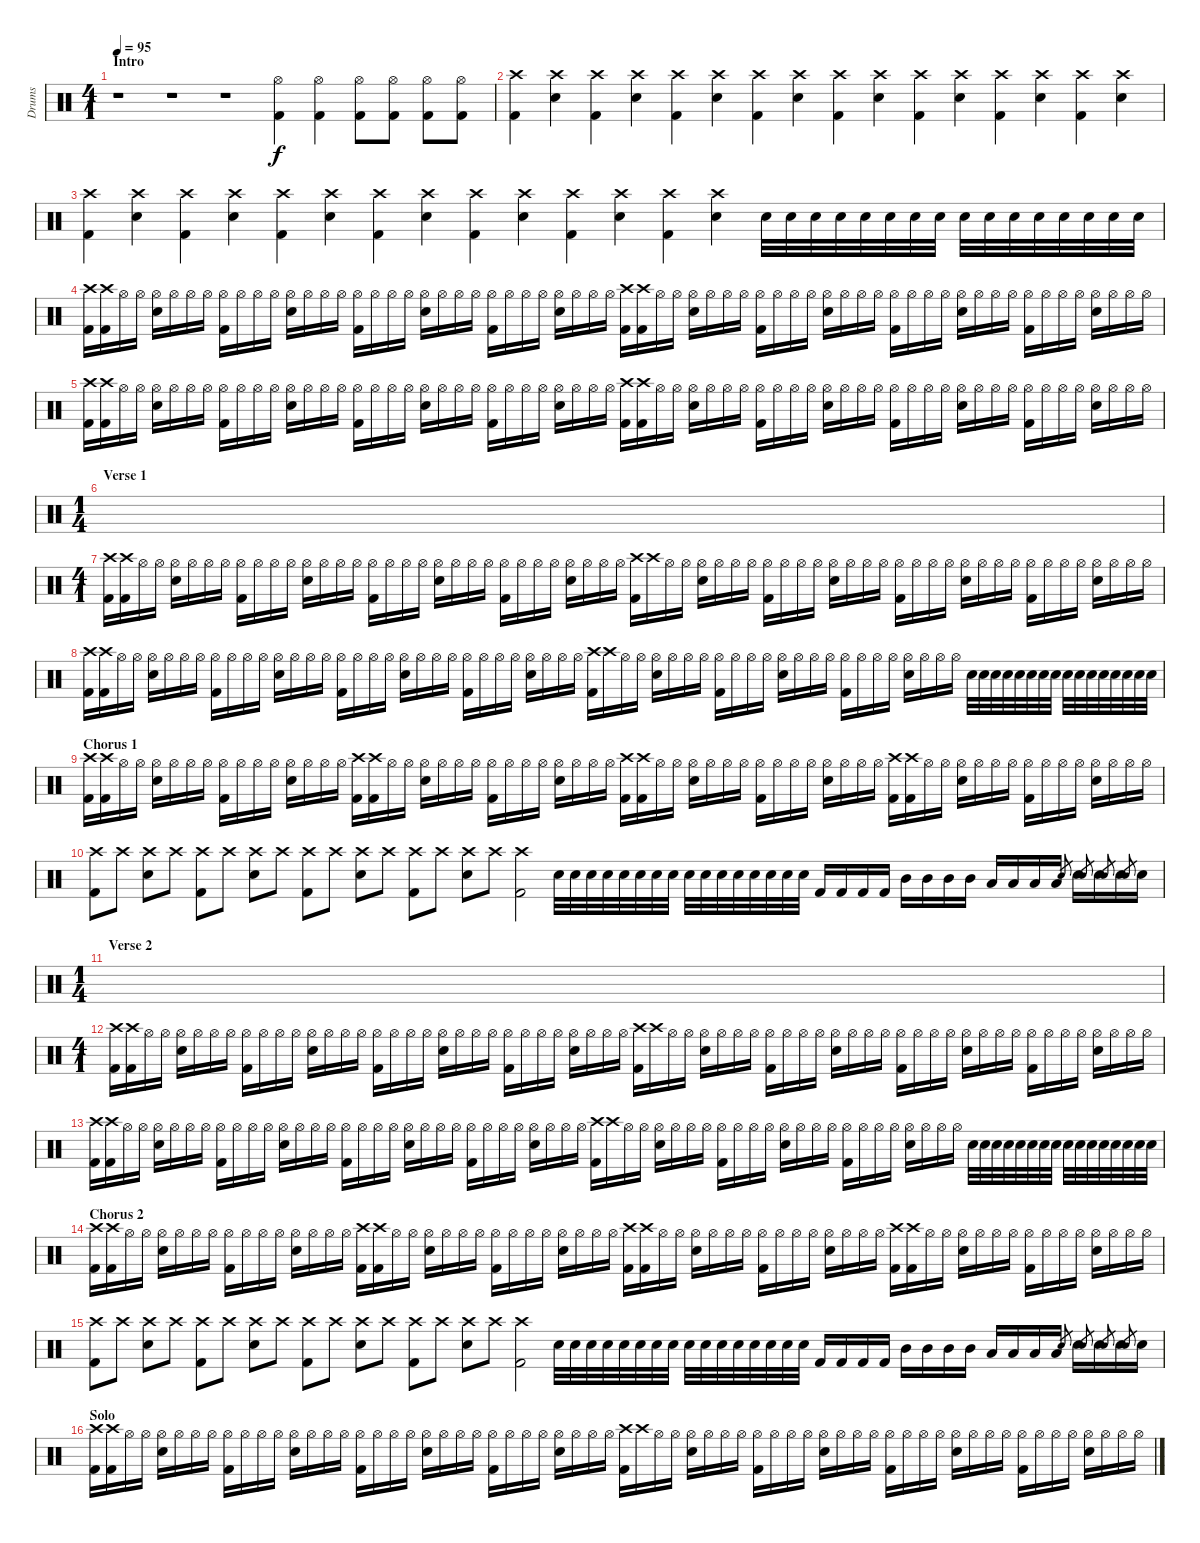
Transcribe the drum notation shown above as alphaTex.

\track ("Drums" "Drums") {instrument percussion}
\staff {score}
\articulation defaults
\ts (4 1)
\section ("" "Intro")
\tempo 95
\clef neutral
\ks c
r.1{dy f} r.1 r.1 ("Hi-Hat (open)" "Kick (hit) 2").4 ("Hi-Hat (open)" "Kick (hit) 2").4 ("Hi-Hat (open)" "Kick (hit) 2").8 ("Hi-Hat (open)" "Kick (hit) 2").8 ("Hi-Hat (open)" "Kick (hit) 2").8 ("Hi-Hat (open)" "Kick (hit) 2").8 |
("Crash high (hit)" "Kick (hit) 2").4 ("Crash high (hit)" "Electric Snare (hit)").4 ("Crash high (hit)" "Kick (hit) 2").4 ("Crash high (hit)" "Electric Snare (hit)").4 ("Crash high (hit)" "Kick (hit) 2").4 ("Crash high (hit)" "Electric Snare (hit)").4 ("Crash high (hit)" "Kick (hit) 2").4 ("Crash high (hit)" "Electric Snare (hit)").4 ("Crash high (hit)" "Kick (hit) 2").4 ("Crash high (hit)" "Electric Snare (hit)").4 ("Crash high (hit)" "Kick (hit) 2").4 ("Crash high (hit)" "Electric Snare (hit)").4 ("Crash high (hit)" "Kick (hit) 2").4 ("Crash high (hit)" "Electric Snare (hit)").4 ("Crash high (hit)" "Kick (hit) 2").4 ("Crash high (hit)" "Electric Snare (hit)").4 |
("Crash high (hit)" "Kick (hit) 2").4 ("Crash high (hit)" "Electric Snare (hit)").4 ("Crash high (hit)" "Kick (hit) 2").4 ("Crash high (hit)" "Electric Snare (hit)").4 ("Crash high (hit)" "Kick (hit) 2").4 ("Crash high (hit)" "Electric Snare (hit)").4 ("Crash high (hit)" "Kick (hit) 2").4 ("Crash high (hit)" "Electric Snare (hit)").4 ("Crash high (hit)" "Kick (hit) 2").4 ("Crash high (hit)" "Electric Snare (hit)").4 ("Crash high (hit)" "Kick (hit) 2").4 ("Crash high (hit)" "Electric Snare (hit)").4 ("Crash high (hit)" "Kick (hit) 2").4 ("Crash high (hit)" "Electric Snare (hit)").4 "Electric Snare (hit)".32 "Electric Snare (hit)".32 "Electric Snare (hit)".32 "Electric Snare (hit)".32 "Electric Snare (hit)".32 "Electric Snare (hit)".32 "Electric Snare (hit)".32 "Electric Snare (hit)".32 "Electric Snare (hit)".32 "Electric Snare (hit)".32 "Electric Snare (hit)".32 "Electric Snare (hit)".32 "Electric Snare (hit)".32 "Electric Snare (hit)".32 "Electric Snare (hit)".32 "Electric Snare (hit)".32 |
("Crash high (hit)" "Kick (hit) 2").16 ("Crash high (hit)" "Kick (hit) 2").16 "Hi-Hat (open)".16 "Hi-Hat (open)".16 ("Hi-Hat (open)" "Electric Snare (hit)").16 "Hi-Hat (open)".16 "Hi-Hat (open)".16 "Hi-Hat (open)".16 ("Hi-Hat (open)" "Kick (hit) 2").16 "Hi-Hat (open)".16 "Hi-Hat (open)".16 "Hi-Hat (open)".16 ("Hi-Hat (open)" "Electric Snare (hit)").16 "Hi-Hat (open)".16 "Hi-Hat (open)".16 "Hi-Hat (open)".16 ("Hi-Hat (open)" "Kick (hit) 2").16 "Hi-Hat (open)".16 "Hi-Hat (open)".16 "Hi-Hat (open)".16 ("Hi-Hat (open)" "Electric Snare (hit)").16 "Hi-Hat (open)".16 "Hi-Hat (open)".16 "Hi-Hat (open)".16 ("Hi-Hat (open)" "Kick (hit) 2").16 "Hi-Hat (open)".16 "Hi-Hat (open)".16 "Hi-Hat (open)".16 ("Hi-Hat (open)" "Electric Snare (hit)").16 "Hi-Hat (open)".16 "Hi-Hat (open)".16 "Hi-Hat (open)".16 ("Crash high (hit)" "Kick (hit) 2").16 ("Crash high (hit)" "Kick (hit) 2").16 "Hi-Hat (open)".16 "Hi-Hat (open)".16 ("Hi-Hat (open)" "Electric Snare (hit)").16 "Hi-Hat (open)".16 "Hi-Hat (open)".16 "Hi-Hat (open)".16 ("Hi-Hat (open)" "Kick (hit) 2").16 "Hi-Hat (open)".16 "Hi-Hat (open)".16 "Hi-Hat (open)".16 ("Hi-Hat (open)" "Electric Snare (hit)").16 "Hi-Hat (open)".16 "Hi-Hat (open)".16 "Hi-Hat (open)".16 ("Hi-Hat (open)" "Kick (hit) 2").16 "Hi-Hat (open)".16 "Hi-Hat (open)".16 "Hi-Hat (open)".16 ("Hi-Hat (open)" "Electric Snare (hit)").16 "Hi-Hat (open)".16 "Hi-Hat (open)".16 "Hi-Hat (open)".16 ("Hi-Hat (open)" "Kick (hit) 2").16 "Hi-Hat (open)".16 "Hi-Hat (open)".16 "Hi-Hat (open)".16 ("Hi-Hat (open)" "Electric Snare (hit)").16 "Hi-Hat (open)".16 "Hi-Hat (open)".16 "Hi-Hat (open)".16 |
("Crash high (hit)" "Kick (hit) 2").16 ("Crash high (hit)" "Kick (hit) 2").16 "Hi-Hat (open)".16 "Hi-Hat (open)".16 ("Hi-Hat (open)" "Electric Snare (hit)").16 "Hi-Hat (open)".16 "Hi-Hat (open)".16 "Hi-Hat (open)".16 ("Hi-Hat (open)" "Kick (hit) 2").16 "Hi-Hat (open)".16 "Hi-Hat (open)".16 "Hi-Hat (open)".16 ("Hi-Hat (open)" "Electric Snare (hit)").16 "Hi-Hat (open)".16 "Hi-Hat (open)".16 "Hi-Hat (open)".16 ("Hi-Hat (open)" "Kick (hit) 2").16 "Hi-Hat (open)".16 "Hi-Hat (open)".16 "Hi-Hat (open)".16 ("Hi-Hat (open)" "Electric Snare (hit)").16 "Hi-Hat (open)".16 "Hi-Hat (open)".16 "Hi-Hat (open)".16 ("Hi-Hat (open)" "Kick (hit) 2").16 "Hi-Hat (open)".16 "Hi-Hat (open)".16 "Hi-Hat (open)".16 ("Hi-Hat (open)" "Electric Snare (hit)").16 "Hi-Hat (open)".16 "Hi-Hat (open)".16 "Hi-Hat (open)".16 ("Crash high (hit)" "Kick (hit) 2").16 ("Crash high (hit)" "Kick (hit) 2").16 "Hi-Hat (open)".16 "Hi-Hat (open)".16 ("Hi-Hat (open)" "Electric Snare (hit)").16 "Hi-Hat (open)".16 "Hi-Hat (open)".16 "Hi-Hat (open)".16 ("Hi-Hat (open)" "Kick (hit) 2").16 "Hi-Hat (open)".16 "Hi-Hat (open)".16 "Hi-Hat (open)".16 ("Hi-Hat (open)" "Electric Snare (hit)").16 "Hi-Hat (open)".16 "Hi-Hat (open)".16 "Hi-Hat (open)".16 ("Hi-Hat (open)" "Kick (hit) 2").16 "Hi-Hat (open)".16 "Hi-Hat (open)".16 "Hi-Hat (open)".16 ("Hi-Hat (open)" "Electric Snare (hit)").16 "Hi-Hat (open)".16 "Hi-Hat (open)".16 "Hi-Hat (open)".16 ("Hi-Hat (open)" "Kick (hit) 2").16 "Hi-Hat (open)".16 "Hi-Hat (open)".16 "Hi-Hat (open)".16 ("Hi-Hat (open)" "Electric Snare (hit)").16 "Hi-Hat (open)".16 "Hi-Hat (open)".16 "Hi-Hat (open)".16 |
\ts (1 4)
\section ("" "Verse 1")
|
\ts (4 1)
("Crash high (hit)" "Kick (hit) 2").16 ("Crash high (hit)" "Kick (hit) 2").16 "Hi-Hat (open)".16 "Hi-Hat (open)".16 ("Hi-Hat (open)" "Electric Snare (hit)").16 "Hi-Hat (open)".16 "Hi-Hat (open)".16 "Hi-Hat (open)".16 ("Hi-Hat (open)" "Kick (hit) 2").16 "Hi-Hat (open)".16 "Hi-Hat (open)".16 "Hi-Hat (open)".16 ("Hi-Hat (open)" "Electric Snare (hit)").16 "Hi-Hat (open)".16 "Hi-Hat (open)".16 "Hi-Hat (open)".16 ("Hi-Hat (open)" "Kick (hit) 2").16 "Hi-Hat (open)".16 "Hi-Hat (open)".16 "Hi-Hat (open)".16 ("Hi-Hat (open)" "Electric Snare (hit)").16 "Hi-Hat (open)".16 "Hi-Hat (open)".16 "Hi-Hat (open)".16 ("Hi-Hat (open)" "Kick (hit) 2").16 "Hi-Hat (open)".16 "Hi-Hat (open)".16 "Hi-Hat (open)".16 ("Hi-Hat (open)" "Electric Snare (hit)").16 "Hi-Hat (open)".16 "Hi-Hat (open)".16 "Hi-Hat (open)".16 ("Crash high (hit)" "Kick (hit) 2").16 "Crash high (hit)".16 "Hi-Hat (open)".16 "Hi-Hat (open)".16 ("Hi-Hat (open)" "Electric Snare (hit)").16 "Hi-Hat (open)".16 "Hi-Hat (open)".16 "Hi-Hat (open)".16 ("Hi-Hat (open)" "Kick (hit) 2").16 "Hi-Hat (open)".16 "Hi-Hat (open)".16 "Hi-Hat (open)".16 ("Hi-Hat (open)" "Electric Snare (hit)").16 "Hi-Hat (open)".16 "Hi-Hat (open)".16 "Hi-Hat (open)".16 ("Hi-Hat (open)" "Kick (hit) 2").16 "Hi-Hat (open)".16 "Hi-Hat (open)".16 "Hi-Hat (open)".16 ("Hi-Hat (open)" "Electric Snare (hit)").16 "Hi-Hat (open)".16 "Hi-Hat (open)".16 "Hi-Hat (open)".16 ("Hi-Hat (open)" "Kick (hit) 2").16 "Hi-Hat (open)".16 "Hi-Hat (open)".16 "Hi-Hat (open)".16 ("Hi-Hat (open)" "Electric Snare (hit)").16 "Hi-Hat (open)".16 "Hi-Hat (open)".16 "Hi-Hat (open)".16 |
("Crash high (hit)" "Kick (hit) 2").16 ("Crash high (hit)" "Kick (hit) 2").16 "Hi-Hat (open)".16 "Hi-Hat (open)".16 ("Hi-Hat (open)" "Electric Snare (hit)").16 "Hi-Hat (open)".16 "Hi-Hat (open)".16 "Hi-Hat (open)".16 ("Hi-Hat (open)" "Kick (hit) 2").16 "Hi-Hat (open)".16 "Hi-Hat (open)".16 "Hi-Hat (open)".16 ("Hi-Hat (open)" "Electric Snare (hit)").16 "Hi-Hat (open)".16 "Hi-Hat (open)".16 "Hi-Hat (open)".16 ("Hi-Hat (open)" "Kick (hit) 2").16 "Hi-Hat (open)".16 "Hi-Hat (open)".16 "Hi-Hat (open)".16 ("Hi-Hat (open)" "Electric Snare (hit)").16 "Hi-Hat (open)".16 "Hi-Hat (open)".16 "Hi-Hat (open)".16 ("Hi-Hat (open)" "Kick (hit) 2").16 "Hi-Hat (open)".16 "Hi-Hat (open)".16 "Hi-Hat (open)".16 ("Hi-Hat (open)" "Electric Snare (hit)").16 "Hi-Hat (open)".16 "Hi-Hat (open)".16 "Hi-Hat (open)".16 ("Crash high (hit)" "Kick (hit) 2").16 "Crash high (hit)".16 "Hi-Hat (open)".16 "Hi-Hat (open)".16 ("Hi-Hat (open)" "Electric Snare (hit)").16 "Hi-Hat (open)".16 "Hi-Hat (open)".16 "Hi-Hat (open)".16 ("Hi-Hat (open)" "Kick (hit) 2").16 "Hi-Hat (open)".16 "Hi-Hat (open)".16 "Hi-Hat (open)".16 ("Hi-Hat (open)" "Electric Snare (hit)").16 "Hi-Hat (open)".16 "Hi-Hat (open)".16 "Hi-Hat (open)".16 ("Hi-Hat (open)" "Kick (hit) 2").16 "Hi-Hat (open)".16 "Hi-Hat (open)".16 "Hi-Hat (open)".16 ("Hi-Hat (open)" "Electric Snare (hit)").16 "Hi-Hat (open)".16 "Hi-Hat (open)".16 "Hi-Hat (open)".16 "Electric Snare (hit)".32 "Electric Snare (hit)".32 "Electric Snare (hit)".32 "Electric Snare (hit)".32 "Electric Snare (hit)".32 "Electric Snare (hit)".32 "Electric Snare (hit)".32 "Electric Snare (hit)".32 "Electric Snare (hit)".32 "Electric Snare (hit)".32 "Electric Snare (hit)".32 "Electric Snare (hit)".32 "Electric Snare (hit)".32 "Electric Snare (hit)".32 "Electric Snare (hit)".32 "Electric Snare (hit)".32 |
\section ("" "Chorus 1")
("Crash high (hit)" "Kick (hit) 2").16 ("Crash high (hit)" "Kick (hit) 2").16 "Hi-Hat (open)".16 "Hi-Hat (open)".16 ("Hi-Hat (open)" "Electric Snare (hit)").16 "Hi-Hat (open)".16 "Hi-Hat (open)".16 "Hi-Hat (open)".16 ("Hi-Hat (open)" "Kick (hit) 2").16 "Hi-Hat (open)".16 "Hi-Hat (open)".16 "Hi-Hat (open)".16 ("Hi-Hat (open)" "Electric Snare (hit)").16 "Hi-Hat (open)".16 "Hi-Hat (open)".16 "Hi-Hat (open)".16 ("Crash high (hit)" "Kick (hit) 2").16 ("Crash high (hit)" "Kick (hit) 2").16 "Hi-Hat (open)".16 "Hi-Hat (open)".16 ("Hi-Hat (open)" "Electric Snare (hit)").16 "Hi-Hat (open)".16 "Hi-Hat (open)".16 "Hi-Hat (open)".16 ("Hi-Hat (open)" "Kick (hit) 2").16 "Hi-Hat (open)".16 "Hi-Hat (open)".16 "Hi-Hat (open)".16 ("Hi-Hat (open)" "Electric Snare (hit)").16 "Hi-Hat (open)".16 "Hi-Hat (open)".16 "Hi-Hat (open)".16 ("Crash high (hit)" "Kick (hit) 2").16 ("Crash high (hit)" "Kick (hit) 2").16 "Hi-Hat (open)".16 "Hi-Hat (open)".16 ("Hi-Hat (open)" "Electric Snare (hit)").16 "Hi-Hat (open)".16 "Hi-Hat (open)".16 "Hi-Hat (open)".16 ("Hi-Hat (open)" "Kick (hit) 2").16 "Hi-Hat (open)".16 "Hi-Hat (open)".16 "Hi-Hat (open)".16 ("Hi-Hat (open)" "Electric Snare (hit)").16 "Hi-Hat (open)".16 "Hi-Hat (open)".16 "Hi-Hat (open)".16 ("Crash high (hit)" "Kick (hit) 2").16 ("Crash high (hit)" "Kick (hit) 2").16 "Hi-Hat (open)".16 "Hi-Hat (open)".16 ("Hi-Hat (open)" "Electric Snare (hit)").16 "Hi-Hat (open)".16 "Hi-Hat (open)".16 "Hi-Hat (open)".16 ("Hi-Hat (open)" "Kick (hit) 2").16 "Hi-Hat (open)".16 "Hi-Hat (open)".16 "Hi-Hat (open)".16 ("Hi-Hat (open)" "Electric Snare (hit)").16 "Hi-Hat (open)".16 "Hi-Hat (open)".16 "Hi-Hat (open)".16 |
("Crash high (hit)" "Kick (hit) 2").8 "Crash high (hit)".8 ("Crash high (hit)" "Electric Snare (hit)").8 "Crash high (hit)".8 ("Crash high (hit)" "Kick (hit) 2").8 "Crash high (hit)".8 ("Crash high (hit)" "Electric Snare (hit)").8 "Crash high (hit)".8 ("Crash high (hit)" "Kick (hit) 2").8 "Crash high (hit)".8 ("Crash high (hit)" "Electric Snare (hit)").8 "Crash high (hit)".8 ("Crash high (hit)" "Kick (hit) 2").8 "Crash high (hit)".8 ("Crash high (hit)" "Electric Snare (hit)").8 "Crash high (hit)".8 ("Crash high (hit)" "Kick (hit) 2").2 "Electric Snare (hit)".32 "Electric Snare (hit)".32 "Electric Snare (hit)".32 "Electric Snare (hit)".32 "Electric Snare (hit)".32 "Electric Snare (hit)".32 "Electric Snare (hit)".32 "Electric Snare (hit)".32 "Electric Snare (hit)".32 "Electric Snare (hit)".32 "Electric Snare (hit)".32 "Electric Snare (hit)".32 "Electric Snare (hit)".32 "Electric Snare (hit)".32 "Electric Snare (hit)".32 "Electric Snare (hit)".32 "Kick (hit) 2".16 "Kick (hit) 2".16 "Kick (hit) 2".16 "Kick (hit) 2".16 "Mid Tom (hit)".16 "Mid Tom (hit)".16 "Mid Tom (hit)".16 "Mid Tom (hit)".16 "Low Tom (hit)".16 "Low Tom (hit)".16 "Low Tom (hit)".16 "Low Tom (hit)".16 "Electric Snare (hit)".8{gr} "Electric Snare (hit)".16 "Electric Snare (hit)".8{gr} "Electric Snare (hit)".16 "Electric Snare (hit)".8{gr} "Electric Snare (hit)".16 "Electric Snare (hit)".8{gr} "Electric Snare (hit)".16 |
\ts (1 4)
\section ("" "Verse 2")
|
\ts (4 1)
("Crash high (hit)" "Kick (hit) 2").16 ("Crash high (hit)" "Kick (hit) 2").16 "Hi-Hat (open)".16 "Hi-Hat (open)".16 ("Hi-Hat (open)" "Electric Snare (hit)").16 "Hi-Hat (open)".16 "Hi-Hat (open)".16 "Hi-Hat (open)".16 ("Hi-Hat (open)" "Kick (hit) 2").16 "Hi-Hat (open)".16 "Hi-Hat (open)".16 "Hi-Hat (open)".16 ("Hi-Hat (open)" "Electric Snare (hit)").16 "Hi-Hat (open)".16 "Hi-Hat (open)".16 "Hi-Hat (open)".16 ("Hi-Hat (open)" "Kick (hit) 2").16 "Hi-Hat (open)".16 "Hi-Hat (open)".16 "Hi-Hat (open)".16 ("Hi-Hat (open)" "Electric Snare (hit)").16 "Hi-Hat (open)".16 "Hi-Hat (open)".16 "Hi-Hat (open)".16 ("Hi-Hat (open)" "Kick (hit) 2").16 "Hi-Hat (open)".16 "Hi-Hat (open)".16 "Hi-Hat (open)".16 ("Hi-Hat (open)" "Electric Snare (hit)").16 "Hi-Hat (open)".16 "Hi-Hat (open)".16 "Hi-Hat (open)".16 ("Crash high (hit)" "Kick (hit) 2").16 "Crash high (hit)".16 "Hi-Hat (open)".16 "Hi-Hat (open)".16 ("Hi-Hat (open)" "Electric Snare (hit)").16 "Hi-Hat (open)".16 "Hi-Hat (open)".16 "Hi-Hat (open)".16 ("Hi-Hat (open)" "Kick (hit) 2").16 "Hi-Hat (open)".16 "Hi-Hat (open)".16 "Hi-Hat (open)".16 ("Hi-Hat (open)" "Electric Snare (hit)").16 "Hi-Hat (open)".16 "Hi-Hat (open)".16 "Hi-Hat (open)".16 ("Hi-Hat (open)" "Kick (hit) 2").16 "Hi-Hat (open)".16 "Hi-Hat (open)".16 "Hi-Hat (open)".16 ("Hi-Hat (open)" "Electric Snare (hit)").16 "Hi-Hat (open)".16 "Hi-Hat (open)".16 "Hi-Hat (open)".16 ("Hi-Hat (open)" "Kick (hit) 2").16 "Hi-Hat (open)".16 "Hi-Hat (open)".16 "Hi-Hat (open)".16 ("Hi-Hat (open)" "Electric Snare (hit)").16 "Hi-Hat (open)".16 "Hi-Hat (open)".16 "Hi-Hat (open)".16 |
("Crash high (hit)" "Kick (hit) 2").16 ("Crash high (hit)" "Kick (hit) 2").16 "Hi-Hat (open)".16 "Hi-Hat (open)".16 ("Hi-Hat (open)" "Electric Snare (hit)").16 "Hi-Hat (open)".16 "Hi-Hat (open)".16 "Hi-Hat (open)".16 ("Hi-Hat (open)" "Kick (hit) 2").16 "Hi-Hat (open)".16 "Hi-Hat (open)".16 "Hi-Hat (open)".16 ("Hi-Hat (open)" "Electric Snare (hit)").16 "Hi-Hat (open)".16 "Hi-Hat (open)".16 "Hi-Hat (open)".16 ("Hi-Hat (open)" "Kick (hit) 2").16 "Hi-Hat (open)".16 "Hi-Hat (open)".16 "Hi-Hat (open)".16 ("Hi-Hat (open)" "Electric Snare (hit)").16 "Hi-Hat (open)".16 "Hi-Hat (open)".16 "Hi-Hat (open)".16 ("Hi-Hat (open)" "Kick (hit) 2").16 "Hi-Hat (open)".16 "Hi-Hat (open)".16 "Hi-Hat (open)".16 ("Hi-Hat (open)" "Electric Snare (hit)").16 "Hi-Hat (open)".16 "Hi-Hat (open)".16 "Hi-Hat (open)".16 ("Crash high (hit)" "Kick (hit) 2").16 "Crash high (hit)".16 "Hi-Hat (open)".16 "Hi-Hat (open)".16 ("Hi-Hat (open)" "Electric Snare (hit)").16 "Hi-Hat (open)".16 "Hi-Hat (open)".16 "Hi-Hat (open)".16 ("Hi-Hat (open)" "Kick (hit) 2").16 "Hi-Hat (open)".16 "Hi-Hat (open)".16 "Hi-Hat (open)".16 ("Hi-Hat (open)" "Electric Snare (hit)").16 "Hi-Hat (open)".16 "Hi-Hat (open)".16 "Hi-Hat (open)".16 ("Hi-Hat (open)" "Kick (hit) 2").16 "Hi-Hat (open)".16 "Hi-Hat (open)".16 "Hi-Hat (open)".16 ("Hi-Hat (open)" "Electric Snare (hit)").16 "Hi-Hat (open)".16 "Hi-Hat (open)".16 "Hi-Hat (open)".16 "Electric Snare (hit)".32 "Electric Snare (hit)".32 "Electric Snare (hit)".32 "Electric Snare (hit)".32 "Electric Snare (hit)".32 "Electric Snare (hit)".32 "Electric Snare (hit)".32 "Electric Snare (hit)".32 "Electric Snare (hit)".32 "Electric Snare (hit)".32 "Electric Snare (hit)".32 "Electric Snare (hit)".32 "Electric Snare (hit)".32 "Electric Snare (hit)".32 "Electric Snare (hit)".32 "Electric Snare (hit)".32 |
\section ("" "Chorus 2")
("Crash high (hit)" "Kick (hit) 2").16 ("Crash high (hit)" "Kick (hit) 2").16 "Hi-Hat (open)".16 "Hi-Hat (open)".16 ("Hi-Hat (open)" "Electric Snare (hit)").16 "Hi-Hat (open)".16 "Hi-Hat (open)".16 "Hi-Hat (open)".16 ("Hi-Hat (open)" "Kick (hit) 2").16 "Hi-Hat (open)".16 "Hi-Hat (open)".16 "Hi-Hat (open)".16 ("Hi-Hat (open)" "Electric Snare (hit)").16 "Hi-Hat (open)".16 "Hi-Hat (open)".16 "Hi-Hat (open)".16 ("Crash high (hit)" "Kick (hit) 2").16 ("Crash high (hit)" "Kick (hit) 2").16 "Hi-Hat (open)".16 "Hi-Hat (open)".16 ("Hi-Hat (open)" "Electric Snare (hit)").16 "Hi-Hat (open)".16 "Hi-Hat (open)".16 "Hi-Hat (open)".16 ("Hi-Hat (open)" "Kick (hit) 2").16 "Hi-Hat (open)".16 "Hi-Hat (open)".16 "Hi-Hat (open)".16 ("Hi-Hat (open)" "Electric Snare (hit)").16 "Hi-Hat (open)".16 "Hi-Hat (open)".16 "Hi-Hat (open)".16 ("Crash high (hit)" "Kick (hit) 2").16 ("Crash high (hit)" "Kick (hit) 2").16 "Hi-Hat (open)".16 "Hi-Hat (open)".16 ("Hi-Hat (open)" "Electric Snare (hit)").16 "Hi-Hat (open)".16 "Hi-Hat (open)".16 "Hi-Hat (open)".16 ("Hi-Hat (open)" "Kick (hit) 2").16 "Hi-Hat (open)".16 "Hi-Hat (open)".16 "Hi-Hat (open)".16 ("Hi-Hat (open)" "Electric Snare (hit)").16 "Hi-Hat (open)".16 "Hi-Hat (open)".16 "Hi-Hat (open)".16 ("Crash high (hit)" "Kick (hit) 2").16 ("Crash high (hit)" "Kick (hit) 2").16 "Hi-Hat (open)".16 "Hi-Hat (open)".16 ("Hi-Hat (open)" "Electric Snare (hit)").16 "Hi-Hat (open)".16 "Hi-Hat (open)".16 "Hi-Hat (open)".16 ("Hi-Hat (open)" "Kick (hit) 2").16 "Hi-Hat (open)".16 "Hi-Hat (open)".16 "Hi-Hat (open)".16 ("Hi-Hat (open)" "Electric Snare (hit)").16 "Hi-Hat (open)".16 "Hi-Hat (open)".16 "Hi-Hat (open)".16 |
("Crash high (hit)" "Kick (hit) 2").8 "Crash high (hit)".8 ("Crash high (hit)" "Electric Snare (hit)").8 "Crash high (hit)".8 ("Crash high (hit)" "Kick (hit) 2").8 "Crash high (hit)".8 ("Crash high (hit)" "Electric Snare (hit)").8 "Crash high (hit)".8 ("Crash high (hit)" "Kick (hit) 2").8 "Crash high (hit)".8 ("Crash high (hit)" "Electric Snare (hit)").8 "Crash high (hit)".8 ("Crash high (hit)" "Kick (hit) 2").8 "Crash high (hit)".8 ("Crash high (hit)" "Electric Snare (hit)").8 "Crash high (hit)".8 ("Crash high (hit)" "Kick (hit) 2").2 "Electric Snare (hit)".32 "Electric Snare (hit)".32 "Electric Snare (hit)".32 "Electric Snare (hit)".32 "Electric Snare (hit)".32 "Electric Snare (hit)".32 "Electric Snare (hit)".32 "Electric Snare (hit)".32 "Electric Snare (hit)".32 "Electric Snare (hit)".32 "Electric Snare (hit)".32 "Electric Snare (hit)".32 "Electric Snare (hit)".32 "Electric Snare (hit)".32 "Electric Snare (hit)".32 "Electric Snare (hit)".32 "Kick (hit) 2".16 "Kick (hit) 2".16 "Kick (hit) 2".16 "Kick (hit) 2".16 "Mid Tom (hit)".16 "Mid Tom (hit)".16 "Mid Tom (hit)".16 "Mid Tom (hit)".16 "Low Tom (hit)".16 "Low Tom (hit)".16 "Low Tom (hit)".16 "Low Tom (hit)".16 "Electric Snare (hit)".8{gr} "Electric Snare (hit)".16 "Electric Snare (hit)".8{gr} "Electric Snare (hit)".16 "Electric Snare (hit)".8{gr} "Electric Snare (hit)".16 "Electric Snare (hit)".8{gr} "Electric Snare (hit)".16 |
\section ("" "Solo")
("Crash high (hit)" "Kick (hit) 2").16 ("Crash high (hit)" "Kick (hit) 2").16 "Hi-Hat (open)".16 "Hi-Hat (open)".16 ("Hi-Hat (open)" "Electric Snare (hit)").16 "Hi-Hat (open)".16 "Hi-Hat (open)".16 "Hi-Hat (open)".16 ("Hi-Hat (open)" "Kick (hit) 2").16 "Hi-Hat (open)".16 "Hi-Hat (open)".16 "Hi-Hat (open)".16 ("Hi-Hat (open)" "Electric Snare (hit)").16 "Hi-Hat (open)".16 "Hi-Hat (open)".16 "Hi-Hat (open)".16 ("Hi-Hat (open)" "Kick (hit) 2").16 "Hi-Hat (open)".16 "Hi-Hat (open)".16 "Hi-Hat (open)".16 ("Hi-Hat (open)" "Electric Snare (hit)").16 "Hi-Hat (open)".16 "Hi-Hat (open)".16 "Hi-Hat (open)".16 ("Hi-Hat (open)" "Kick (hit) 2").16 "Hi-Hat (open)".16 "Hi-Hat (open)".16 "Hi-Hat (open)".16 ("Hi-Hat (open)" "Electric Snare (hit)").16 "Hi-Hat (open)".16 "Hi-Hat (open)".16 "Hi-Hat (open)".16 ("Crash high (hit)" "Kick (hit) 2").16 "Crash high (hit)".16 "Hi-Hat (open)".16 "Hi-Hat (open)".16 ("Hi-Hat (open)" "Electric Snare (hit)").16 "Hi-Hat (open)".16 "Hi-Hat (open)".16 "Hi-Hat (open)".16 ("Hi-Hat (open)" "Kick (hit) 2").16 "Hi-Hat (open)".16 "Hi-Hat (open)".16 "Hi-Hat (open)".16 ("Hi-Hat (open)" "Electric Snare (hit)").16 "Hi-Hat (open)".16 "Hi-Hat (open)".16 "Hi-Hat (open)".16 ("Hi-Hat (open)" "Kick (hit) 2").16 "Hi-Hat (open)".16 "Hi-Hat (open)".16 "Hi-Hat (open)".16 ("Hi-Hat (open)" "Electric Snare (hit)").16 "Hi-Hat (open)".16 "Hi-Hat (open)".16 "Hi-Hat (open)".16 ("Hi-Hat (open)" "Kick (hit) 2").16 "Hi-Hat (open)".16 "Hi-Hat (open)".16 "Hi-Hat (open)".16 ("Hi-Hat (open)" "Electric Snare (hit)").16 "Hi-Hat (open)".16 "Hi-Hat (open)".16 "Hi-Hat (open)".16
